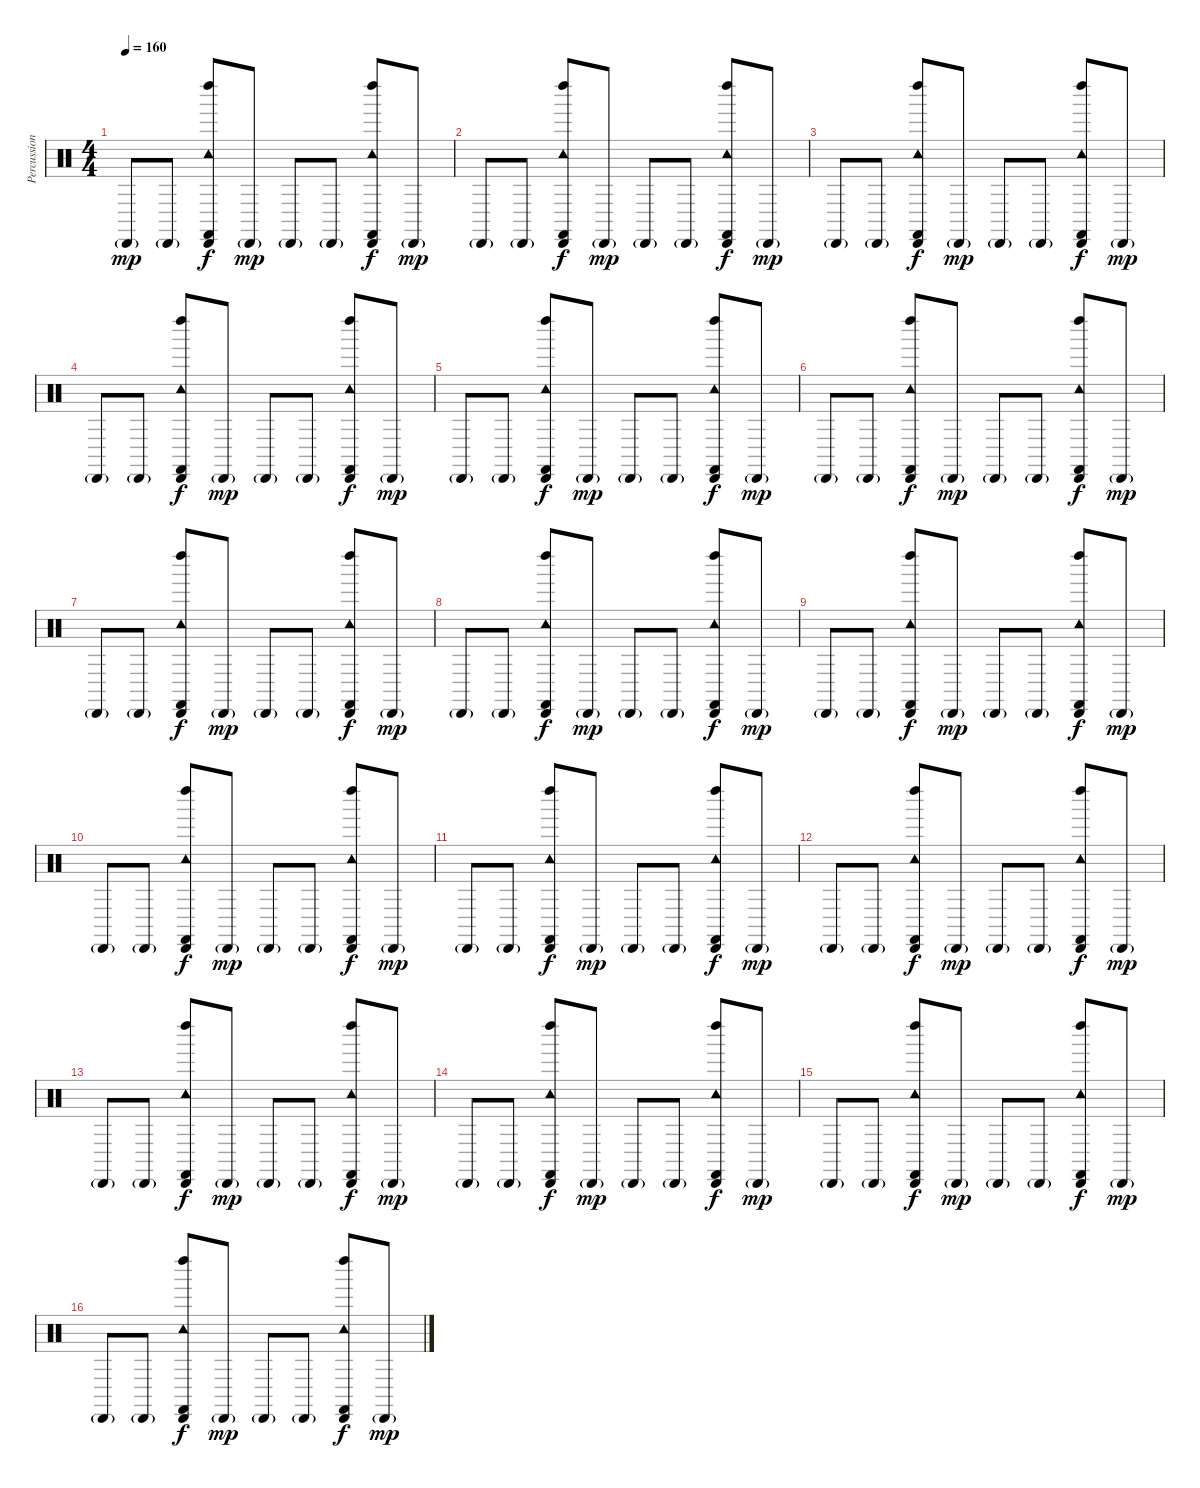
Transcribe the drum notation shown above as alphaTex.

\track ("Percussion" "Percussion") {instrument percussion}
\staff {score}
\articulation defaults
\ts (4 4)
\tempo 160
\clef neutral
\ks c "Cabasa (hit)"{g}.8{dy mp} "Cabasa (hit)"{g}.8
("Cabasa (hit)" "Tambourine (hit)" "Left Maraca (hit)" "Castanets (hit)").8{dy f} "Cabasa (hit)"{g}.8{dy mp} "Cabasa (hit)"{g}.8 "Cabasa (hit)"{g}.8 ("Cabasa (hit)" "Tambourine (hit)" "Left Maraca (hit)" "Castanets (hit)").8{dy f} "Cabasa (hit)"{g}.8{dy mp} |
"Cabasa (hit)"{g}.8 "Cabasa (hit)"{g}.8 ("Cabasa (hit)" "Tambourine (hit)" "Left Maraca (hit)" "Castanets (hit)").8{dy f} "Cabasa (hit)"{g}.8{dy mp} "Cabasa (hit)"{g}.8 "Cabasa (hit)"{g}.8 ("Cabasa (hit)" "Tambourine (hit)" "Left Maraca (hit)" "Castanets (hit)").8{dy f} "Cabasa (hit)"{g}.8{dy mp} |
"Cabasa (hit)"{g}.8 "Cabasa (hit)"{g}.8 ("Cabasa (hit)" "Tambourine (hit)" "Left Maraca (hit)" "Castanets (hit)").8{dy f} "Cabasa (hit)"{g}.8{dy mp} "Cabasa (hit)"{g}.8 "Cabasa (hit)"{g}.8 ("Cabasa (hit)" "Tambourine (hit)" "Left Maraca (hit)" "Castanets (hit)").8{dy f} "Cabasa (hit)"{g}.8{dy mp} |
"Cabasa (hit)"{g}.8 "Cabasa (hit)"{g}.8 ("Cabasa (hit)" "Tambourine (hit)" "Left Maraca (hit)" "Castanets (hit)").8{dy f} "Cabasa (hit)"{g}.8{dy mp} "Cabasa (hit)"{g}.8 "Cabasa (hit)"{g}.8 ("Cabasa (hit)" "Tambourine (hit)" "Left Maraca (hit)" "Castanets (hit)").8{dy f} "Cabasa (hit)"{g}.8{dy mp} |
"Cabasa (hit)"{g}.8 "Cabasa (hit)"{g}.8 ("Cabasa (hit)" "Tambourine (hit)" "Left Maraca (hit)" "Castanets (hit)").8{dy f} "Cabasa (hit)"{g}.8{dy mp} "Cabasa (hit)"{g}.8 "Cabasa (hit)"{g}.8 ("Cabasa (hit)" "Tambourine (hit)" "Left Maraca (hit)" "Castanets (hit)").8{dy f} "Cabasa (hit)"{g}.8{dy mp} |
"Cabasa (hit)"{g}.8 "Cabasa (hit)"{g}.8 ("Cabasa (hit)" "Tambourine (hit)" "Left Maraca (hit)" "Castanets (hit)").8{dy f} "Cabasa (hit)"{g}.8{dy mp} "Cabasa (hit)"{g}.8 "Cabasa (hit)"{g}.8 ("Cabasa (hit)" "Tambourine (hit)" "Left Maraca (hit)" "Castanets (hit)").8{dy f} "Cabasa (hit)"{g}.8{dy mp} |
"Cabasa (hit)"{g}.8 "Cabasa (hit)"{g}.8 ("Cabasa (hit)" "Tambourine (hit)" "Left Maraca (hit)" "Castanets (hit)").8{dy f} "Cabasa (hit)"{g}.8{dy mp} "Cabasa (hit)"{g}.8 "Cabasa (hit)"{g}.8 ("Cabasa (hit)" "Tambourine (hit)" "Left Maraca (hit)" "Castanets (hit)").8{dy f} "Cabasa (hit)"{g}.8{dy mp} |
"Cabasa (hit)"{g}.8 "Cabasa (hit)"{g}.8 ("Cabasa (hit)" "Tambourine (hit)" "Left Maraca (hit)" "Castanets (hit)").8{dy f} "Cabasa (hit)"{g}.8{dy mp} "Cabasa (hit)"{g}.8 "Cabasa (hit)"{g}.8 ("Cabasa (hit)" "Tambourine (hit)" "Left Maraca (hit)" "Castanets (hit)").8{dy f} "Cabasa (hit)"{g}.8{dy mp} |
"Cabasa (hit)"{g}.8 "Cabasa (hit)"{g}.8 ("Cabasa (hit)" "Tambourine (hit)" "Left Maraca (hit)" "Castanets (hit)").8{dy f} "Cabasa (hit)"{g}.8{dy mp} "Cabasa (hit)"{g}.8 "Cabasa (hit)"{g}.8 ("Cabasa (hit)" "Tambourine (hit)" "Left Maraca (hit)" "Castanets (hit)").8{dy f} "Cabasa (hit)"{g}.8{dy mp} |
"Cabasa (hit)"{g}.8 "Cabasa (hit)"{g}.8 ("Cabasa (hit)" "Tambourine (hit)" "Left Maraca (hit)" "Castanets (hit)").8{dy f} "Cabasa (hit)"{g}.8{dy mp} "Cabasa (hit)"{g}.8 "Cabasa (hit)"{g}.8 ("Cabasa (hit)" "Tambourine (hit)" "Left Maraca (hit)" "Castanets (hit)").8{dy f} "Cabasa (hit)"{g}.8{dy mp} |
"Cabasa (hit)"{g}.8 "Cabasa (hit)"{g}.8 ("Cabasa (hit)" "Tambourine (hit)" "Left Maraca (hit)" "Castanets (hit)").8{dy f} "Cabasa (hit)"{g}.8{dy mp} "Cabasa (hit)"{g}.8 "Cabasa (hit)"{g}.8 ("Cabasa (hit)" "Tambourine (hit)" "Left Maraca (hit)" "Castanets (hit)").8{dy f} "Cabasa (hit)"{g}.8{dy mp} |
"Cabasa (hit)"{g}.8 "Cabasa (hit)"{g}.8 ("Cabasa (hit)" "Tambourine (hit)" "Left Maraca (hit)" "Castanets (hit)").8{dy f} "Cabasa (hit)"{g}.8{dy mp} "Cabasa (hit)"{g}.8 "Cabasa (hit)"{g}.8 ("Cabasa (hit)" "Tambourine (hit)" "Left Maraca (hit)" "Castanets (hit)").8{dy f} "Cabasa (hit)"{g}.8{dy mp} |
"Cabasa (hit)"{g}.8 "Cabasa (hit)"{g}.8 ("Cabasa (hit)" "Tambourine (hit)" "Left Maraca (hit)" "Castanets (hit)").8{dy f} "Cabasa (hit)"{g}.8{dy mp} "Cabasa (hit)"{g}.8 "Cabasa (hit)"{g}.8 ("Cabasa (hit)" "Tambourine (hit)" "Left Maraca (hit)" "Castanets (hit)").8{dy f} "Cabasa (hit)"{g}.8{dy mp} |
"Cabasa (hit)"{g}.8 "Cabasa (hit)"{g}.8 ("Cabasa (hit)" "Tambourine (hit)" "Left Maraca (hit)" "Castanets (hit)").8{dy f} "Cabasa (hit)"{g}.8{dy mp} "Cabasa (hit)"{g}.8 "Cabasa (hit)"{g}.8 ("Cabasa (hit)" "Tambourine (hit)" "Left Maraca (hit)" "Castanets (hit)").8{dy f} "Cabasa (hit)"{g}.8{dy mp} |
"Cabasa (hit)"{g}.8 "Cabasa (hit)"{g}.8 ("Cabasa (hit)" "Tambourine (hit)" "Left Maraca (hit)" "Castanets (hit)").8{dy f} "Cabasa (hit)"{g}.8{dy mp} "Cabasa (hit)"{g}.8 "Cabasa (hit)"{g}.8 ("Cabasa (hit)" "Tambourine (hit)" "Left Maraca (hit)" "Castanets (hit)").8{dy f} "Cabasa (hit)"{g}.8{dy mp} |
"Cabasa (hit)"{g}.8 "Cabasa (hit)"{g}.8 ("Cabasa (hit)" "Tambourine (hit)" "Left Maraca (hit)" "Castanets (hit)").8{dy f} "Cabasa (hit)"{g}.8{dy mp} "Cabasa (hit)"{g}.8 "Cabasa (hit)"{g}.8 ("Cabasa (hit)" "Tambourine (hit)" "Left Maraca (hit)" "Castanets (hit)").8{dy f} "Cabasa (hit)"{g}.8{dy mp}
